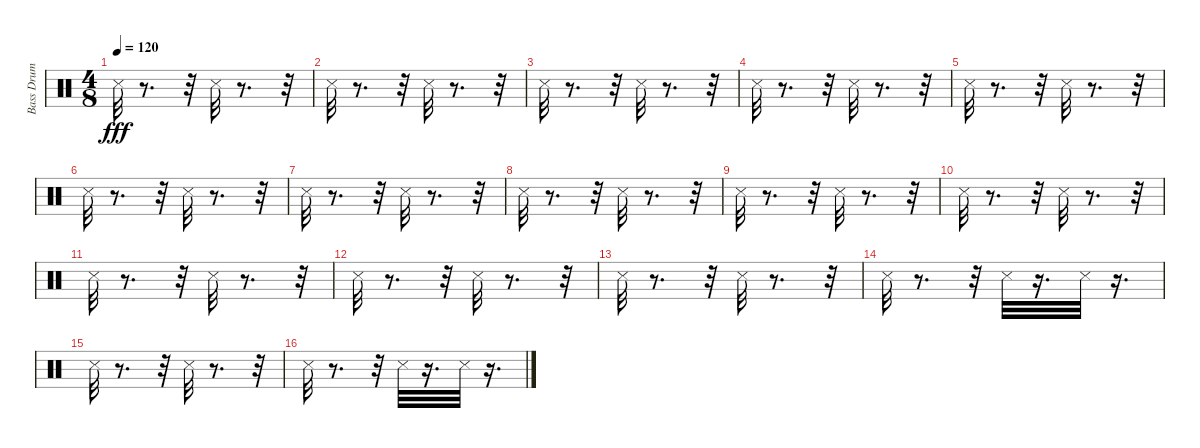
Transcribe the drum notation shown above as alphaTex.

\track ("Bass Drum" "Bass Drum") {instrument percussion}
\staff {score}
\articulation defaults
\ts (4 8)
\tempo 120
\clef neutral
\ks c "Metronome (hit)".32{dy fff}
r.8{d} r.32 "Metronome (hit)".32 r.8{d} r.32 |
"Metronome (hit)".32 r.8{d} r.32 "Metronome (hit)".32 r.8{d} r.32 |
"Metronome (hit)".32 r.8{d} r.32 "Metronome (hit)".32 r.8{d} r.32 |
"Metronome (hit)".32 r.8{d} r.32 "Metronome (hit)".32 r.8{d} r.32 |
"Metronome (hit)".32 r.8{d} r.32 "Metronome (hit)".32 r.8{d} r.32 |
"Metronome (hit)".32 r.8{d} r.32 "Metronome (hit)".32 r.8{d} r.32 |
"Metronome (hit)".32 r.8{d} r.32 "Metronome (hit)".32 r.8{d} r.32 |
"Metronome (hit)".32 r.8{d} r.32 "Metronome (hit)".32 r.8{d} r.32 |
"Metronome (hit)".32 r.8{d} r.32 "Metronome (hit)".32 r.8{d} r.32 |
"Metronome (hit)".32 r.8{d} r.32 "Metronome (hit)".32 r.8{d} r.32 |
"Metronome (hit)".32 r.8{d} r.32 "Metronome (hit)".32 r.8{d} r.32 |
"Metronome (hit)".32 r.8{d} r.32 "Metronome (hit)".32 r.8{d} r.32 |
"Metronome (hit)".32 r.8{d} r.32 "Metronome (hit)".32 r.8{d} r.32 |
"Metronome (hit)".32 r.8{d} r.32 "Metronome (hit)".32 r.16{d} "Metronome (hit)".32 r.16{d} |
"Metronome (hit)".32 r.8{d} r.32 "Metronome (hit)".32 r.8{d} r.32 |
"Metronome (hit)".32 r.8{d} r.32 "Metronome (hit)".32 r.16{d} "Metronome (hit)".32 r.16{d}
